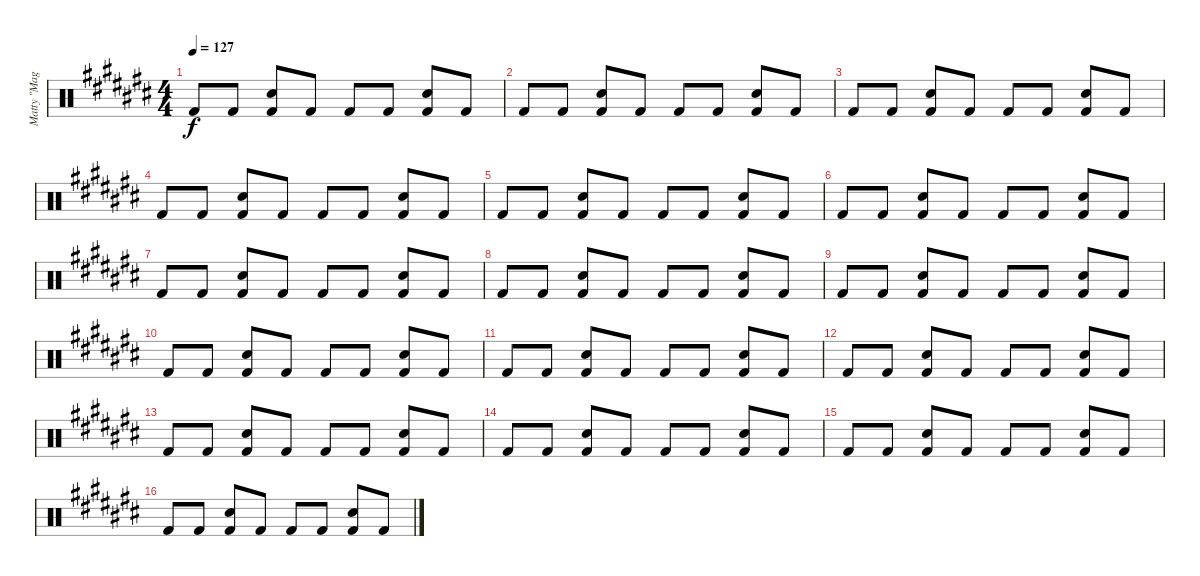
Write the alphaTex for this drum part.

\track ("Matty \"Magic\" Datsun (Drums)" "Matty \"Mag") {instrument percussion}
\staff {score}
\articulation defaults
\ts (4 4)
\tempo 127
\clef neutral
\ks a#minor "Kick (hit) 2".8{dy f} "Kick (hit) 2".8
("Kick (hit) 2" "Electric Snare (hit)").8 "Kick (hit) 2".8 "Kick (hit) 2".8 "Kick (hit) 2".8 ("Kick (hit) 2" "Electric Snare (hit)").8 "Kick (hit) 2".8 |
"Kick (hit) 2".8 "Kick (hit) 2".8 ("Kick (hit) 2" "Electric Snare (hit)").8 "Kick (hit) 2".8 "Kick (hit) 2".8 "Kick (hit) 2".8 ("Kick (hit) 2" "Electric Snare (hit)").8 "Kick (hit) 2".8 |
"Kick (hit) 2".8 "Kick (hit) 2".8 ("Kick (hit) 2" "Electric Snare (hit)").8 "Kick (hit) 2".8 "Kick (hit) 2".8 "Kick (hit) 2".8 ("Kick (hit) 2" "Electric Snare (hit)").8 "Kick (hit) 2".8 |
"Kick (hit) 2".8 "Kick (hit) 2".8 ("Kick (hit) 2" "Electric Snare (hit)").8 "Kick (hit) 2".8 "Kick (hit) 2".8 "Kick (hit) 2".8 ("Kick (hit) 2" "Electric Snare (hit)").8 "Kick (hit) 2".8 |
"Kick (hit) 2".8 "Kick (hit) 2".8 ("Kick (hit) 2" "Electric Snare (hit)").8 "Kick (hit) 2".8 "Kick (hit) 2".8 "Kick (hit) 2".8 ("Kick (hit) 2" "Electric Snare (hit)").8 "Kick (hit) 2".8 |
"Kick (hit) 2".8 "Kick (hit) 2".8 ("Kick (hit) 2" "Electric Snare (hit)").8 "Kick (hit) 2".8 "Kick (hit) 2".8 "Kick (hit) 2".8 ("Kick (hit) 2" "Electric Snare (hit)").8 "Kick (hit) 2".8 |
"Kick (hit) 2".8 "Kick (hit) 2".8 ("Kick (hit) 2" "Electric Snare (hit)").8 "Kick (hit) 2".8 "Kick (hit) 2".8 "Kick (hit) 2".8 ("Kick (hit) 2" "Electric Snare (hit)").8 "Kick (hit) 2".8 |
"Kick (hit) 2".8 "Kick (hit) 2".8 ("Kick (hit) 2" "Electric Snare (hit)").8 "Kick (hit) 2".8 "Kick (hit) 2".8 "Kick (hit) 2".8 ("Kick (hit) 2" "Electric Snare (hit)").8 "Kick (hit) 2".8 |
"Kick (hit) 2".8 "Kick (hit) 2".8 ("Kick (hit) 2" "Electric Snare (hit)").8 "Kick (hit) 2".8 "Kick (hit) 2".8 "Kick (hit) 2".8 ("Kick (hit) 2" "Electric Snare (hit)").8 "Kick (hit) 2".8 |
"Kick (hit) 2".8 "Kick (hit) 2".8 ("Kick (hit) 2" "Electric Snare (hit)").8 "Kick (hit) 2".8 "Kick (hit) 2".8 "Kick (hit) 2".8 ("Kick (hit) 2" "Electric Snare (hit)").8 "Kick (hit) 2".8 |
"Kick (hit) 2".8 "Kick (hit) 2".8 ("Kick (hit) 2" "Electric Snare (hit)").8 "Kick (hit) 2".8 "Kick (hit) 2".8 "Kick (hit) 2".8 ("Kick (hit) 2" "Electric Snare (hit)").8 "Kick (hit) 2".8 |
"Kick (hit) 2".8 "Kick (hit) 2".8 ("Kick (hit) 2" "Electric Snare (hit)").8 "Kick (hit) 2".8 "Kick (hit) 2".8 "Kick (hit) 2".8 ("Kick (hit) 2" "Electric Snare (hit)").8 "Kick (hit) 2".8 |
"Kick (hit) 2".8 "Kick (hit) 2".8 ("Kick (hit) 2" "Electric Snare (hit)").8 "Kick (hit) 2".8 "Kick (hit) 2".8 "Kick (hit) 2".8 ("Kick (hit) 2" "Electric Snare (hit)").8 "Kick (hit) 2".8 |
"Kick (hit) 2".8 "Kick (hit) 2".8 ("Kick (hit) 2" "Electric Snare (hit)").8 "Kick (hit) 2".8 "Kick (hit) 2".8 "Kick (hit) 2".8 ("Kick (hit) 2" "Electric Snare (hit)").8 "Kick (hit) 2".8 |
"Kick (hit) 2".8 "Kick (hit) 2".8 ("Kick (hit) 2" "Electric Snare (hit)").8 "Kick (hit) 2".8 "Kick (hit) 2".8 "Kick (hit) 2".8 ("Kick (hit) 2" "Electric Snare (hit)").8 "Kick (hit) 2".8 |
"Kick (hit) 2".8 "Kick (hit) 2".8 ("Kick (hit) 2" "Electric Snare (hit)").8 "Kick (hit) 2".8 "Kick (hit) 2".8 "Kick (hit) 2".8 ("Kick (hit) 2" "Electric Snare (hit)").8 "Kick (hit) 2".8
